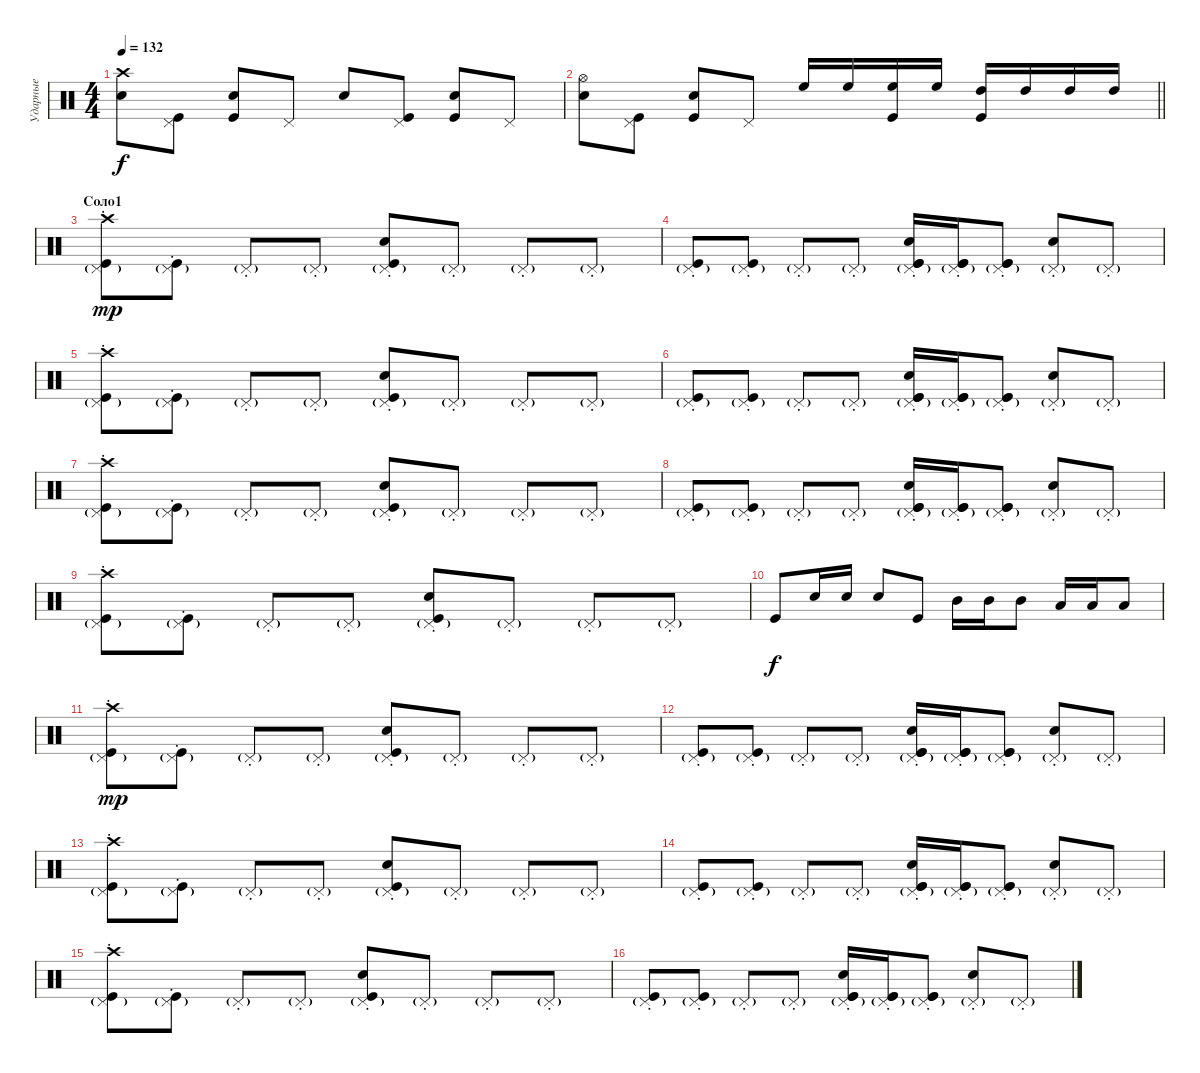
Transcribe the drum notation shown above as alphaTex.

\track ("Ударные" "Ударные") {instrument percussion}
\staff {score}
\articulation defaults
\ts (4 4)
\tempo 132
\clef neutral
\ks c
("Crash high (hit)" "Snare (hit) 2").8{dy f} ("Pedal Hi-Hat (hit)" "Kick (hit)").8 ("Snare (hit) 2" "Kick (hit)").8 "Pedal Hi-Hat (hit)".8 "Snare (hit) 2".8 ("Pedal Hi-Hat (hit)" "Kick (hit)").8 ("Snare (hit) 2" "Kick (hit)").8 "Pedal Hi-Hat (hit)".8 |
\barLineRight lightlight
("Hi-Hat (open)" "Snare (hit) 2").8 ("Pedal Hi-Hat (hit)" "Kick (hit)").8 ("Snare (hit) 2" "Kick (hit)").8 "Pedal Hi-Hat (hit)".8 "High Floor Tom (hit)".16 "High Floor Tom (hit)".16 ("High Floor Tom (hit)" "Kick (hit)").16 "High Floor Tom (hit)".16 ("High Tom (hit)" "Kick (hit)").16 "High Tom (hit)".16 "High Tom (hit)".16 "High Tom (hit)".16 |
\section ("" "Соло1")
("Pedal Hi-Hat (hit)"{g st} "Kick (hit)" "Crash high (hit)").8{dy mp} ("Pedal Hi-Hat (hit)"{g st} "Kick (hit)").8 "Pedal Hi-Hat (hit)"{g st}.8 "Pedal Hi-Hat (hit)"{g st}.8 ("Pedal Hi-Hat (hit)"{g st} "Electric Snare (hit)" "Kick (hit)").8 "Pedal Hi-Hat (hit)"{g st}.8 "Pedal Hi-Hat (hit)"{g st}.8 "Pedal Hi-Hat (hit)"{g st}.8 |
("Pedal Hi-Hat (hit)"{g st} "Kick (hit)").8 ("Pedal Hi-Hat (hit)"{g st} "Kick (hit)").8 "Pedal Hi-Hat (hit)"{g st}.8 "Pedal Hi-Hat (hit)"{g st}.8 ("Pedal Hi-Hat (hit)"{g st} "Electric Snare (hit)" "Kick (hit)" "Kick (hit)").16 ("Pedal Hi-Hat (hit)"{g st} "Kick (hit)" "Kick (hit)").16 ("Pedal Hi-Hat (hit)"{g st} "Kick (hit)" "Kick (hit)").8 ("Pedal Hi-Hat (hit)"{g st} "Electric Snare (hit)").8 "Pedal Hi-Hat (hit)"{g st}.8 |
("Pedal Hi-Hat (hit)"{g st} "Kick (hit)" "Crash high (hit)").8 ("Pedal Hi-Hat (hit)"{g st} "Kick (hit)").8 "Pedal Hi-Hat (hit)"{g st}.8 "Pedal Hi-Hat (hit)"{g st}.8 ("Pedal Hi-Hat (hit)"{g st} "Electric Snare (hit)" "Kick (hit)").8 "Pedal Hi-Hat (hit)"{g st}.8 "Pedal Hi-Hat (hit)"{g st}.8 "Pedal Hi-Hat (hit)"{g st}.8 |
("Pedal Hi-Hat (hit)"{g st} "Kick (hit)").8 ("Pedal Hi-Hat (hit)"{g st} "Kick (hit)").8 "Pedal Hi-Hat (hit)"{g st}.8 "Pedal Hi-Hat (hit)"{g st}.8 ("Pedal Hi-Hat (hit)"{g st} "Electric Snare (hit)" "Kick (hit)" "Kick (hit)").16 ("Pedal Hi-Hat (hit)"{g st} "Kick (hit)" "Kick (hit)").16 ("Pedal Hi-Hat (hit)"{g st} "Kick (hit)" "Kick (hit)").8 ("Pedal Hi-Hat (hit)"{g st} "Electric Snare (hit)").8 "Pedal Hi-Hat (hit)"{g st}.8 |
("Pedal Hi-Hat (hit)"{g st} "Kick (hit)" "Crash high (hit)").8 ("Pedal Hi-Hat (hit)"{g st} "Kick (hit)").8 "Pedal Hi-Hat (hit)"{g st}.8 "Pedal Hi-Hat (hit)"{g st}.8 ("Pedal Hi-Hat (hit)"{g st} "Electric Snare (hit)" "Kick (hit)").8 "Pedal Hi-Hat (hit)"{g st}.8 "Pedal Hi-Hat (hit)"{g st}.8 "Pedal Hi-Hat (hit)"{g st}.8 |
("Pedal Hi-Hat (hit)"{g st} "Kick (hit)").8 ("Pedal Hi-Hat (hit)"{g st} "Kick (hit)").8 "Pedal Hi-Hat (hit)"{g st}.8 "Pedal Hi-Hat (hit)"{g st}.8 ("Pedal Hi-Hat (hit)"{g st} "Electric Snare (hit)" "Kick (hit)" "Kick (hit)").16 ("Pedal Hi-Hat (hit)"{g st} "Kick (hit)" "Kick (hit)").16 ("Pedal Hi-Hat (hit)"{g st} "Kick (hit)" "Kick (hit)").8 ("Pedal Hi-Hat (hit)"{g st} "Electric Snare (hit)").8 "Pedal Hi-Hat (hit)"{g st}.8 |
("Pedal Hi-Hat (hit)"{g st} "Kick (hit)" "Crash high (hit)").8 ("Pedal Hi-Hat (hit)"{g st} "Kick (hit)").8 "Pedal Hi-Hat (hit)"{g st}.8 "Pedal Hi-Hat (hit)"{g st}.8 ("Pedal Hi-Hat (hit)"{g st} "Electric Snare (hit)" "Kick (hit)").8 "Pedal Hi-Hat (hit)"{g st}.8 "Pedal Hi-Hat (hit)"{g st}.8 "Pedal Hi-Hat (hit)"{g st}.8 |
"Kick (hit)".8{dy f} "Electric Snare (hit)".16 "Electric Snare (hit)".16 "Electric Snare (hit)".8 "Kick (hit)".8 "Mid Tom (hit)".16 "Mid Tom (hit)".16 "Mid Tom (hit)".8 "Low Tom (hit)".16 "Low Tom (hit)".16 "Low Tom (hit)".8 |
("Pedal Hi-Hat (hit)"{g st} "Kick (hit)" "Crash high (hit)").8{dy mp} ("Pedal Hi-Hat (hit)"{g st} "Kick (hit)").8 "Pedal Hi-Hat (hit)"{g st}.8 "Pedal Hi-Hat (hit)"{g st}.8 ("Pedal Hi-Hat (hit)"{g st} "Electric Snare (hit)" "Kick (hit)").8 "Pedal Hi-Hat (hit)"{g st}.8 "Pedal Hi-Hat (hit)"{g st}.8 "Pedal Hi-Hat (hit)"{g st}.8 |
("Pedal Hi-Hat (hit)"{g st} "Kick (hit)").8 ("Pedal Hi-Hat (hit)"{g st} "Kick (hit)").8 "Pedal Hi-Hat (hit)"{g st}.8 "Pedal Hi-Hat (hit)"{g st}.8 ("Pedal Hi-Hat (hit)"{g st} "Electric Snare (hit)" "Kick (hit)" "Kick (hit)").16 ("Pedal Hi-Hat (hit)"{g st} "Kick (hit)" "Kick (hit)").16 ("Pedal Hi-Hat (hit)"{g st} "Kick (hit)" "Kick (hit)").8 ("Pedal Hi-Hat (hit)"{g st} "Electric Snare (hit)").8 "Pedal Hi-Hat (hit)"{g st}.8 |
("Pedal Hi-Hat (hit)"{g st} "Kick (hit)" "Crash high (hit)").8 ("Pedal Hi-Hat (hit)"{g st} "Kick (hit)").8 "Pedal Hi-Hat (hit)"{g st}.8 "Pedal Hi-Hat (hit)"{g st}.8 ("Pedal Hi-Hat (hit)"{g st} "Electric Snare (hit)" "Kick (hit)").8 "Pedal Hi-Hat (hit)"{g st}.8 "Pedal Hi-Hat (hit)"{g st}.8 "Pedal Hi-Hat (hit)"{g st}.8 |
("Pedal Hi-Hat (hit)"{g st} "Kick (hit)").8 ("Pedal Hi-Hat (hit)"{g st} "Kick (hit)").8 "Pedal Hi-Hat (hit)"{g st}.8 "Pedal Hi-Hat (hit)"{g st}.8 ("Pedal Hi-Hat (hit)"{g st} "Electric Snare (hit)" "Kick (hit)" "Kick (hit)").16 ("Pedal Hi-Hat (hit)"{g st} "Kick (hit)" "Kick (hit)").16 ("Pedal Hi-Hat (hit)"{g st} "Kick (hit)" "Kick (hit)").8 ("Pedal Hi-Hat (hit)"{g st} "Electric Snare (hit)").8 "Pedal Hi-Hat (hit)"{g st}.8 |
("Pedal Hi-Hat (hit)"{g st} "Kick (hit)" "Crash high (hit)").8 ("Pedal Hi-Hat (hit)"{g st} "Kick (hit)").8 "Pedal Hi-Hat (hit)"{g st}.8 "Pedal Hi-Hat (hit)"{g st}.8 ("Pedal Hi-Hat (hit)"{g st} "Electric Snare (hit)" "Kick (hit)").8 "Pedal Hi-Hat (hit)"{g st}.8 "Pedal Hi-Hat (hit)"{g st}.8 "Pedal Hi-Hat (hit)"{g st}.8 |
("Pedal Hi-Hat (hit)"{g st} "Kick (hit)").8 ("Pedal Hi-Hat (hit)"{g st} "Kick (hit)").8 "Pedal Hi-Hat (hit)"{g st}.8 "Pedal Hi-Hat (hit)"{g st}.8 ("Pedal Hi-Hat (hit)"{g st} "Electric Snare (hit)" "Kick (hit)" "Kick (hit)").16 ("Pedal Hi-Hat (hit)"{g st} "Kick (hit)" "Kick (hit)").16 ("Pedal Hi-Hat (hit)"{g st} "Kick (hit)" "Kick (hit)").8 ("Pedal Hi-Hat (hit)"{g st} "Electric Snare (hit)").8 "Pedal Hi-Hat (hit)"{g st}.8
